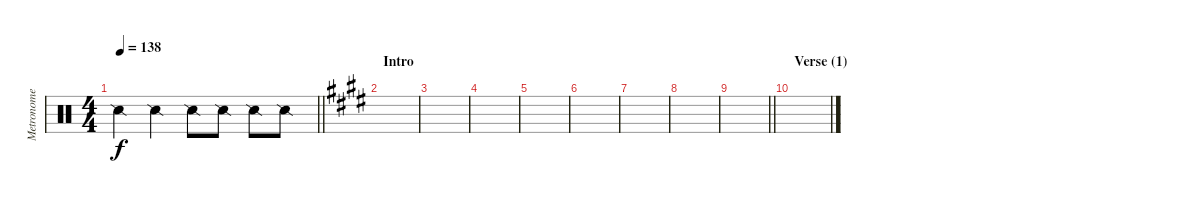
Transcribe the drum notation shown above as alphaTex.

\track ("Metronome" "Metronome") {instrument percussion}
\staff {score}
\articulation defaults
\ts (4 4)
\tempo 138
\clef neutral
\barLineRight lightlight
\ks c "Snare (side stick) 2".4{dy f} "Snare (side stick) 2".4 "Snare (side stick) 2".8 "Snare (side stick) 2".8 "Snare (side stick) 2".8 "Snare (side stick) 2".8
|
\section ("" "Intro")
\ks e
|
|
|
|
|
|
|
\barLineRight lightlight
|
\section ("" "Verse (1)")
